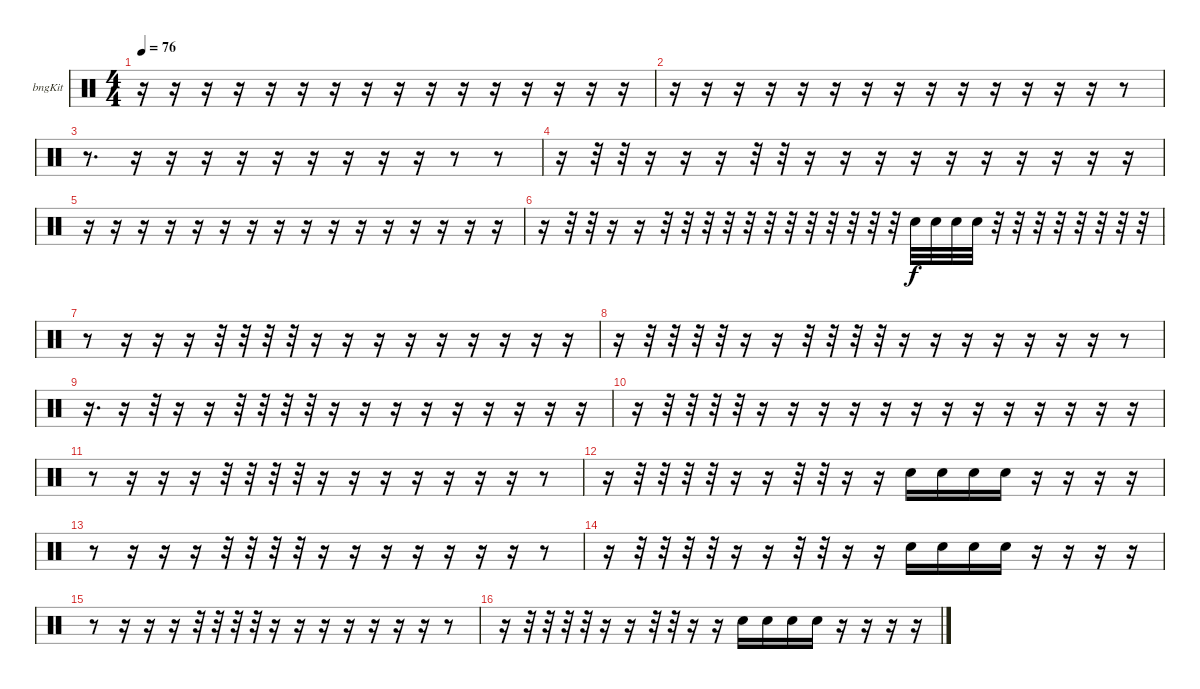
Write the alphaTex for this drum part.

\bracketExtendMode groupsimilarinstruments
\firstSystemTrackNameOrientation horizontal
\otherSystemsTrackNameOrientation horizontal
\track ("Bongos" "bngKit") {instrument percussion}
\staff {score}
\articulation defaults
\ts (4 4)
\tempo 76
\clef neutral
\ks c
r.16{dy f} r.16 r.16 r.16 r.16 r.16 r.16 r.16 r.16 r.16 r.16 r.16 r.16 r.16 r.16 r.16 |
r.16 r.16 r.16 r.16 r.16 r.16 r.16 r.16 r.16 r.16 r.16 r.16 r.16 r.16 r.8 |
r.8{d} r.16 r.16 r.16 r.16 r.16 r.16 r.16 r.16 r.16 r.8 r.8 |
r.16 r.32 r.32 r.16 r.16 r.16 r.32 r.32 r.16 r.16 r.16 r.16 r.16 r.16 r.16 r.16 r.16 r.16 |
r.16 r.16 r.16 r.16 r.16 r.16 r.16 r.16 r.16 r.16 r.16 r.16 r.16 r.16 r.16 r.16 |
r.16 r.32 r.32 r.16 r.16 r.32 r.32 r.32 r.32 r.32 r.32 r.32 r.32 r.32 r.32 r.32 r.32 "Snare (hit) 2".32 "Snare (hit) 2".32 "Snare (hit) 2".32 "Snare (hit) 2".32 r.32 r.32 r.32 r.32 r.32 r.32 r.32 r.32 |
r.8 r.16 r.16 r.16 r.32 r.32 r.32 r.32 r.16 r.16 r.16 r.16 r.16 r.16 r.16 r.16 r.16 |
r.16 r.32 r.32 r.32 r.32 r.16 r.16 r.32 r.32 r.32 r.32 r.16 r.16 r.16 r.16 r.16 r.16 r.16 r.8 |
r.16{d} r.16 r.32 r.16 r.16 r.32 r.32 r.32 r.32 r.16 r.16 r.16 r.16 r.16 r.16 r.16 r.16 r.16 |
r.16 r.32 r.32 r.32 r.32 r.16 r.16 r.16 r.16 r.16 r.16 r.16 r.16 r.16 r.16 r.16 r.16 r.16 |
r.8 r.16 r.16 r.16 r.32 r.32 r.32 r.32 r.16 r.16 r.16 r.16 r.16 r.16 r.16 r.8 |
r.16 r.32 r.32 r.32 r.32 r.16 r.16 r.32 r.32 r.16 r.16 "Snare (hit) 2".16 "Snare (hit) 2".16 "Snare (hit) 2".16 "Snare (hit) 2".16 r.16 r.16 r.16 r.16 |
r.8 r.16 r.16 r.16 r.32 r.32 r.32 r.32 r.16 r.16 r.16 r.16 r.16 r.16 r.16 r.8 |
r.16 r.32 r.32 r.32 r.32 r.16 r.16 r.32 r.32 r.16 r.16 "Snare (hit) 2".16 "Snare (hit) 2".16 "Snare (hit) 2".16 "Snare (hit) 2".16 r.16 r.16 r.16 r.16 |
r.8 r.16 r.16 r.16 r.32 r.32 r.32 r.32 r.16 r.16 r.16 r.16 r.16 r.16 r.16 r.8 |
r.16 r.32 r.32 r.32 r.32 r.16 r.16 r.32 r.32 r.16 r.16 "Snare (hit) 2".16 "Snare (hit) 2".16 "Snare (hit) 2".16 "Snare (hit) 2".16 r.16 r.16 r.16 r.16
